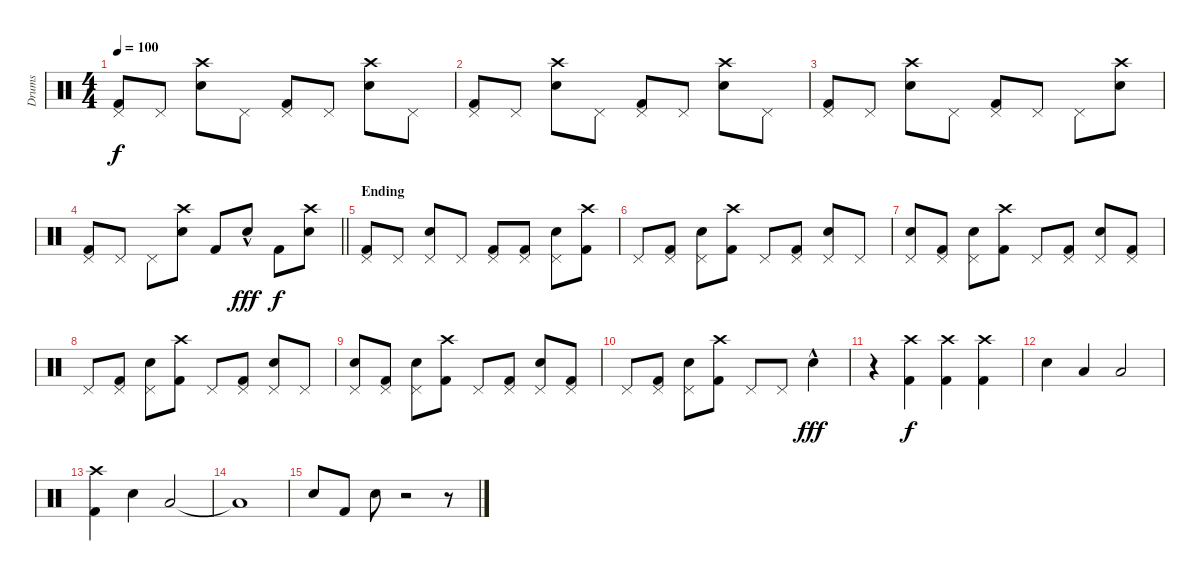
\track ("Drums" "Drums") {instrument percussion}
\staff {score}
\articulation defaults
\ts (4 4)
\tempo 100
\clef neutral
\ks c
("Pedal Hi-Hat (hit)" "Kick (hit) 2").8{dy f} "Pedal Hi-Hat (hit)".8 ("Crash high (hit)" "Electric Snare (hit)").8 "Pedal Hi-Hat (hit)".8 ("Pedal Hi-Hat (hit)" "Kick (hit) 2").8 "Pedal Hi-Hat (hit)".8 ("Crash high (hit)" "Electric Snare (hit)").8 "Pedal Hi-Hat (hit)".8 |
("Pedal Hi-Hat (hit)" "Kick (hit) 2").8 "Pedal Hi-Hat (hit)".8 ("Crash high (hit)" "Electric Snare (hit)").8 "Pedal Hi-Hat (hit)".8 ("Pedal Hi-Hat (hit)" "Kick (hit) 2").8 "Pedal Hi-Hat (hit)".8 ("Crash high (hit)" "Electric Snare (hit)").8 "Pedal Hi-Hat (hit)".8 |
("Pedal Hi-Hat (hit)" "Kick (hit) 2").8 "Pedal Hi-Hat (hit)".8 ("Crash high (hit)" "Electric Snare (hit)").8 "Pedal Hi-Hat (hit)".8 ("Pedal Hi-Hat (hit)" "Kick (hit) 2").8 "Pedal Hi-Hat (hit)".8 "Pedal Hi-Hat (hit)".8 ("Crash high (hit)" "Electric Snare (hit)").8 |
\barLineRight lightlight
("Pedal Hi-Hat (hit)" "Kick (hit) 2").8 "Pedal Hi-Hat (hit)".8 "Pedal Hi-Hat (hit)".8 ("Crash high (hit)" "Electric Snare (hit)").8 "Kick (hit) 2".8 "Electric Snare (hit)"{hac}.8{dy fff} "Kick (hit) 2".8{dy f} ("Crash high (hit)" "Electric Snare (hit)").8 |
\section ("" "Ending")
("Pedal Hi-Hat (hit)" "Kick (hit) 2").8 "Pedal Hi-Hat (hit)".8 ("Pedal Hi-Hat (hit)" "Electric Snare (hit)").8 "Pedal Hi-Hat (hit)".8 ("Pedal Hi-Hat (hit)" "Kick (hit) 2").8 ("Pedal Hi-Hat (hit)" "Kick (hit) 2").8 ("Pedal Hi-Hat (hit)" "Electric Snare (hit)").8 ("Crash high (hit)" "Kick (hit) 2").8 |
"Pedal Hi-Hat (hit)".8 ("Pedal Hi-Hat (hit)" "Kick (hit) 2").8 ("Pedal Hi-Hat (hit)" "Electric Snare (hit)").8 ("Crash high (hit)" "Kick (hit) 2").8 "Pedal Hi-Hat (hit)".8 ("Pedal Hi-Hat (hit)" "Kick (hit) 2").8 ("Pedal Hi-Hat (hit)" "Electric Snare (hit)").8 "Pedal Hi-Hat (hit)".8 |
("Pedal Hi-Hat (hit)" "Electric Snare (hit)").8 ("Pedal Hi-Hat (hit)" "Kick (hit) 2").8 ("Pedal Hi-Hat (hit)" "Electric Snare (hit)").8 ("Crash high (hit)" "Kick (hit) 2").8 "Pedal Hi-Hat (hit)".8 ("Pedal Hi-Hat (hit)" "Kick (hit) 2").8 ("Pedal Hi-Hat (hit)" "Electric Snare (hit)").8 ("Pedal Hi-Hat (hit)" "Kick (hit) 2").8 |
"Pedal Hi-Hat (hit)".8 ("Pedal Hi-Hat (hit)" "Kick (hit) 2").8 ("Pedal Hi-Hat (hit)" "Electric Snare (hit)").8 ("Crash high (hit)" "Kick (hit) 2").8 "Pedal Hi-Hat (hit)".8 ("Pedal Hi-Hat (hit)" "Kick (hit) 2").8 ("Pedal Hi-Hat (hit)" "Electric Snare (hit)").8 "Pedal Hi-Hat (hit)".8 |
("Pedal Hi-Hat (hit)" "Electric Snare (hit)").8 ("Pedal Hi-Hat (hit)" "Kick (hit) 2").8 ("Pedal Hi-Hat (hit)" "Electric Snare (hit)").8 ("Crash high (hit)" "Kick (hit) 2").8 "Pedal Hi-Hat (hit)".8 ("Pedal Hi-Hat (hit)" "Kick (hit) 2").8 ("Pedal Hi-Hat (hit)" "Electric Snare (hit)").8 ("Pedal Hi-Hat (hit)" "Kick (hit) 2").8 |
"Pedal Hi-Hat (hit)".8 ("Pedal Hi-Hat (hit)" "Kick (hit) 2").8 ("Pedal Hi-Hat (hit)" "Electric Snare (hit)").8 ("Crash high (hit)" "Kick (hit) 2").8 "Pedal Hi-Hat (hit)".8 "Pedal Hi-Hat (hit)".8 "Electric Snare (hit)"{hac}.4{dy fff} |
r.4 ("Crash high (hit)" "Kick (hit) 2").4{dy f} ("Crash high (hit)" "Kick (hit) 2").4 ("Crash high (hit)" "Kick (hit) 2").4 |
"Electric Snare (hit)".4 "Low Tom (hit)".4 "Low Floor Tom (hit)".2 |
("Crash high (hit)" "Kick (hit) 2").4 "Electric Snare (hit)".4 "Low Floor Tom (hit)".2 |
"Low Floor Tom (hit)"{t}.1 |
"Electric Snare (hit)".8 "Kick (hit) 2".8 "Electric Snare (hit)".8 r.2 r.8
